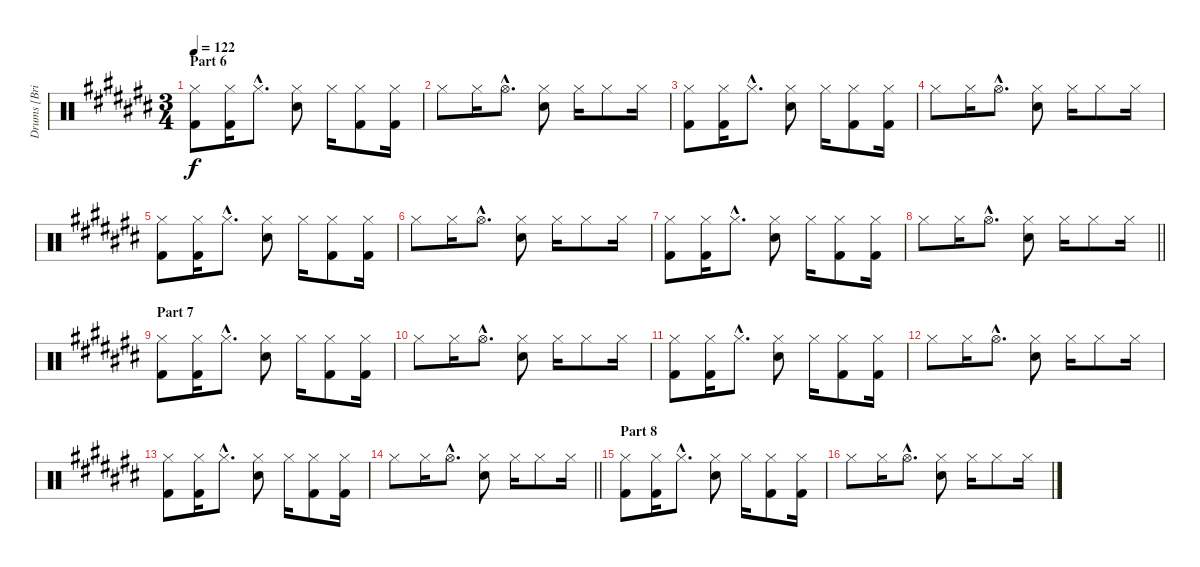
\track ("Drums [Brian \"Brain\" Mantia]" "Drums [Bri") {instrument percussion}
\staff {score}
\articulation defaults
\ts (3 4)
\section ("" "Part 6")
\tempo 122
\clef neutral
\ks c#
("Hi-Hat (closed)" "Kick (hit) 2").8{dy f} ("Hi-Hat (closed)" "Kick (hit) 2").16 "Hi-Hat (closed)"{hac}.8{d} ("Hi-Hat (closed)" "Electric Snare (hit)").8 "Hi-Hat (closed)".16 ("Hi-Hat (closed)" "Kick (hit) 2").8 ("Hi-Hat (closed)" "Kick (hit) 2").16 |
"Hi-Hat (closed)".8 "Hi-Hat (closed)".16 "Hi-Hat (open)"{hac}.8{d} ("Hi-Hat (closed)" "Electric Snare (hit)").8 "Hi-Hat (closed)".16 "Hi-Hat (closed)".8 "Hi-Hat (closed)".16 |
("Hi-Hat (closed)" "Kick (hit) 2").8 ("Hi-Hat (closed)" "Kick (hit) 2").16 "Hi-Hat (closed)"{hac}.8{d} ("Hi-Hat (closed)" "Electric Snare (hit)").8 "Hi-Hat (closed)".16 ("Hi-Hat (closed)" "Kick (hit) 2").8 ("Hi-Hat (closed)" "Kick (hit) 2").16 |
"Hi-Hat (closed)".8 "Hi-Hat (closed)".16 "Hi-Hat (open)"{hac}.8{d} ("Hi-Hat (closed)" "Electric Snare (hit)").8 "Hi-Hat (closed)".16 "Hi-Hat (closed)".8 "Hi-Hat (closed)".16 |
("Hi-Hat (closed)" "Kick (hit) 2").8 ("Hi-Hat (closed)" "Kick (hit) 2").16 "Hi-Hat (closed)"{hac}.8{d} ("Hi-Hat (closed)" "Electric Snare (hit)").8 "Hi-Hat (closed)".16 ("Hi-Hat (closed)" "Kick (hit) 2").8 ("Hi-Hat (closed)" "Kick (hit) 2").16 |
"Hi-Hat (closed)".8 "Hi-Hat (closed)".16 "Hi-Hat (open)"{hac}.8{d} ("Hi-Hat (closed)" "Electric Snare (hit)").8 "Hi-Hat (closed)".16 "Hi-Hat (closed)".8 "Hi-Hat (closed)".16 |
("Hi-Hat (closed)" "Kick (hit) 2").8 ("Hi-Hat (closed)" "Kick (hit) 2").16 "Hi-Hat (closed)"{hac}.8{d} ("Hi-Hat (closed)" "Electric Snare (hit)").8 "Hi-Hat (closed)".16 ("Hi-Hat (closed)" "Kick (hit) 2").8 ("Hi-Hat (closed)" "Kick (hit) 2").16 |
\barLineRight lightlight "Hi-Hat (closed)".8 "Hi-Hat (closed)".16 "Hi-Hat (open)"{hac}.8{d}
("Hi-Hat (closed)" "Electric Snare (hit)").8 "Hi-Hat (closed)".16 "Hi-Hat (closed)".8 "Hi-Hat (closed)".16 |
\section ("" "Part 7")
("Hi-Hat (closed)" "Kick (hit) 2").8 ("Hi-Hat (closed)" "Kick (hit) 2").16 "Hi-Hat (closed)"{hac}.8{d} ("Hi-Hat (closed)" "Electric Snare (hit)").8 "Hi-Hat (closed)".16 ("Hi-Hat (closed)" "Kick (hit) 2").8 ("Hi-Hat (closed)" "Kick (hit) 2").16 |
"Hi-Hat (closed)".8 "Hi-Hat (closed)".16 "Hi-Hat (open)"{hac}.8{d} ("Hi-Hat (closed)" "Electric Snare (hit)").8 "Hi-Hat (closed)".16 "Hi-Hat (closed)".8 "Hi-Hat (closed)".16 |
("Hi-Hat (closed)" "Kick (hit) 2").8 ("Hi-Hat (closed)" "Kick (hit) 2").16 "Hi-Hat (closed)"{hac}.8{d} ("Hi-Hat (closed)" "Electric Snare (hit)").8 "Hi-Hat (closed)".16 ("Hi-Hat (closed)" "Kick (hit) 2").8 ("Hi-Hat (closed)" "Kick (hit) 2").16 |
"Hi-Hat (closed)".8 "Hi-Hat (closed)".16 "Hi-Hat (open)"{hac}.8{d} ("Hi-Hat (closed)" "Electric Snare (hit)").8 "Hi-Hat (closed)".16 "Hi-Hat (closed)".8 "Hi-Hat (closed)".16 |
("Hi-Hat (closed)" "Kick (hit) 2").8 ("Hi-Hat (closed)" "Kick (hit) 2").16 "Hi-Hat (closed)"{hac}.8{d} ("Hi-Hat (closed)" "Electric Snare (hit)").8 "Hi-Hat (closed)".16 ("Hi-Hat (closed)" "Kick (hit) 2").8 ("Hi-Hat (closed)" "Kick (hit) 2").16 |
\barLineRight lightlight "Hi-Hat (closed)".8 "Hi-Hat (closed)".16 "Hi-Hat (open)"{hac}.8{d}
("Hi-Hat (closed)" "Electric Snare (hit)").8 "Hi-Hat (closed)".16 "Hi-Hat (closed)".8 "Hi-Hat (closed)".16 |
\section ("" "Part 8")
("Hi-Hat (closed)" "Kick (hit) 2").8 ("Hi-Hat (closed)" "Kick (hit) 2").16 "Hi-Hat (closed)"{hac}.8{d} ("Hi-Hat (closed)" "Electric Snare (hit)").8 "Hi-Hat (closed)".16 ("Hi-Hat (closed)" "Kick (hit) 2").8 ("Hi-Hat (closed)" "Kick (hit) 2").16 |
"Hi-Hat (closed)".8 "Hi-Hat (closed)".16 "Hi-Hat (open)"{hac}.8{d} ("Hi-Hat (closed)" "Electric Snare (hit)").8 "Hi-Hat (closed)".16 "Hi-Hat (closed)".8 "Hi-Hat (closed)".16
